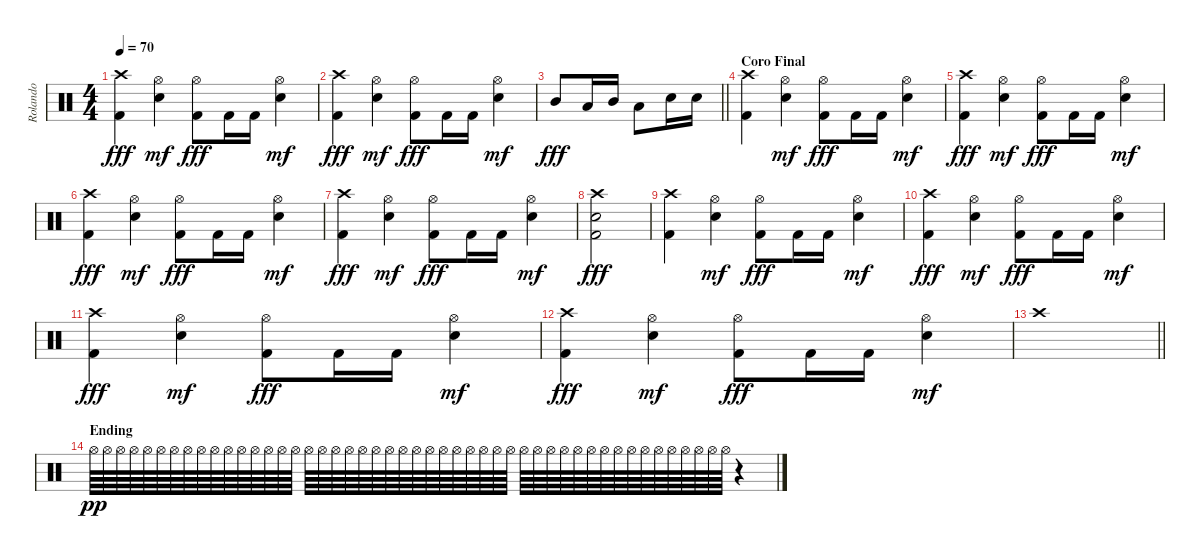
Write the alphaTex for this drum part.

\track ("Rolando" "Rolando") {instrument percussion}
\staff {score}
\articulation defaults
\ts (4 4)
\tempo 70
\clef neutral
\ks c
("Crash high (hit)" "Kick (hit) 2").4{dy fff} ("Snare (hit) 2" "Hi-Hat (open)").4{dy mf} ("Hi-Hat (open)" "Kick (hit) 2").8{dy fff} "Kick (hit) 2".16 "Kick (hit) 2".16 ("Snare (hit) 2" "Hi-Hat (open)").4{dy mf} |
("Crash high (hit)" "Kick (hit) 2").4{dy fff} ("Snare (hit) 2" "Hi-Hat (open)").4{dy mf} ("Hi-Hat (open)" "Kick (hit) 2").8{dy fff} "Kick (hit) 2".16 "Kick (hit) 2".16 ("Snare (hit) 2" "Hi-Hat (open)").4{dy mf} |
\barLineRight lightlight "Mid Tom (hit)".8{dy fff} "Low Tom (hit)".16 "Mid Tom (hit)".16 "Low Tom (hit)".8 "Snare (hit) 2".16 "Snare (hit) 2".16
|
\section ("" "Coro Final")
("Crash high (hit)" "Kick (hit) 2").4 ("Snare (hit) 2" "Hi-Hat (open)").4{dy mf} ("Hi-Hat (open)" "Kick (hit) 2").8{dy fff} "Kick (hit) 2".16 "Kick (hit) 2".16 ("Snare (hit) 2" "Hi-Hat (open)").4{dy mf} |
("Crash high (hit)" "Kick (hit) 2").4{dy fff} ("Snare (hit) 2" "Hi-Hat (open)").4{dy mf} ("Hi-Hat (open)" "Kick (hit) 2").8{dy fff} "Kick (hit) 2".16 "Kick (hit) 2".16 ("Snare (hit) 2" "Hi-Hat (open)").4{dy mf} |
("Crash high (hit)" "Kick (hit) 2").4{dy fff} ("Snare (hit) 2" "Hi-Hat (open)").4{dy mf} ("Hi-Hat (open)" "Kick (hit) 2").8{dy fff} "Kick (hit) 2".16 "Kick (hit) 2".16 ("Snare (hit) 2" "Hi-Hat (open)").4{dy mf} |
("Crash high (hit)" "Kick (hit) 2").4{dy fff} ("Snare (hit) 2" "Hi-Hat (open)").4{dy mf} ("Hi-Hat (open)" "Kick (hit) 2").8{dy fff} "Kick (hit) 2".16 "Kick (hit) 2".16 ("Snare (hit) 2" "Hi-Hat (open)").4{dy mf} |
("Crash high (hit)" "Kick (hit) 2" "Snare (hit) 2").2{dy fff} |
("Crash high (hit)" "Kick (hit) 2").4 ("Snare (hit) 2" "Hi-Hat (open)").4{dy mf} ("Hi-Hat (open)" "Kick (hit) 2").8{dy fff} "Kick (hit) 2".16 "Kick (hit) 2".16 ("Snare (hit) 2" "Hi-Hat (open)").4{dy mf} |
("Crash high (hit)" "Kick (hit) 2").4{dy fff} ("Snare (hit) 2" "Hi-Hat (open)").4{dy mf} ("Hi-Hat (open)" "Kick (hit) 2").8{dy fff} "Kick (hit) 2".16 "Kick (hit) 2".16 ("Snare (hit) 2" "Hi-Hat (open)").4{dy mf} |
("Crash high (hit)" "Kick (hit) 2").4{dy fff} ("Snare (hit) 2" "Hi-Hat (open)").4{dy mf} ("Hi-Hat (open)" "Kick (hit) 2").8{dy fff} "Kick (hit) 2".16 "Kick (hit) 2".16 ("Snare (hit) 2" "Hi-Hat (open)").4{dy mf} |
("Crash high (hit)" "Kick (hit) 2").4{dy fff} ("Snare (hit) 2" "Hi-Hat (open)").4{dy mf} ("Hi-Hat (open)" "Kick (hit) 2").8{dy fff} "Kick (hit) 2".16 "Kick (hit) 2".16 ("Snare (hit) 2" "Hi-Hat (open)").4{dy mf} |
\barLineRight lightlight "Crash high (hit)".1
|
\section ("" "Ending")
"Hi-Hat (open)".64{dy pp} "Hi-Hat (open)".64 "Hi-Hat (open)".64 "Hi-Hat (open)".64 "Hi-Hat (open)".64 "Hi-Hat (open)".64 "Hi-Hat (open)".64 "Hi-Hat (open)".64 "Hi-Hat (open)".64 "Hi-Hat (open)".64 "Hi-Hat (open)".64 "Hi-Hat (open)".64 "Hi-Hat (open)".64 "Hi-Hat (open)".64 "Hi-Hat (open)".64 "Hi-Hat (open)".64 "Hi-Hat (open)".64 "Hi-Hat (open)".64 "Hi-Hat (open)".64 "Hi-Hat (open)".64 "Hi-Hat (open)".64 "Hi-Hat (open)".64 "Hi-Hat (open)".64 "Hi-Hat (open)".64 "Hi-Hat (open)".64 "Hi-Hat (open)".64 "Hi-Hat (open)".64 "Hi-Hat (open)".64 "Hi-Hat (open)".64 "Hi-Hat (open)".64 "Hi-Hat (open)".64 "Hi-Hat (open)".64 "Hi-Hat (open)".64 "Hi-Hat (open)".64 "Hi-Hat (open)".64 "Hi-Hat (open)".64 "Hi-Hat (open)".64 "Hi-Hat (open)".64 "Hi-Hat (open)".64 "Hi-Hat (open)".64 "Hi-Hat (open)".64 "Hi-Hat (open)".64 "Hi-Hat (open)".64 "Hi-Hat (open)".64 "Hi-Hat (open)".64 "Hi-Hat (open)".64 "Hi-Hat (open)".64 "Hi-Hat (open)".64 r.4
